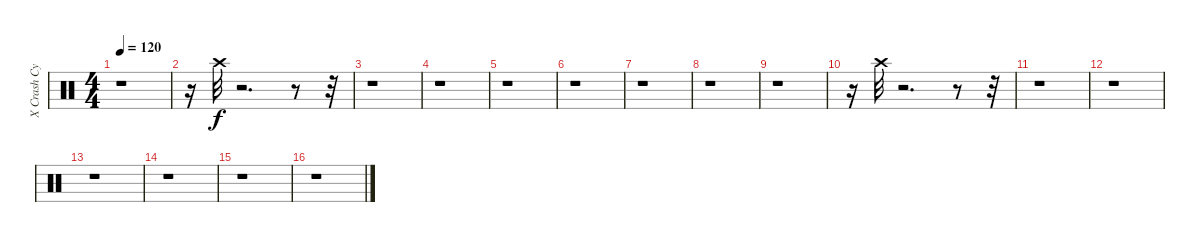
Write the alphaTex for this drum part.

\track ("X Crash Cymbal      " "X Crash Cy") {instrument percussion}
\staff {score}
\articulation defaults
\ts (4 4)
\tempo 120
\clef neutral
\ks c
r.1{dy f} |
r.16 "Crash high (hit)".32 r.2{d} r.8 r.32 |
r.1 |
r.1 |
r.1 |
r.1 |
r.1 |
r.1 |
r.1 |
r.16 "Crash high (hit)".32 r.2{d} r.8 r.32 |
r.1 |
r.1 |
r.1 |
r.1 |
r.1 |
r.1
